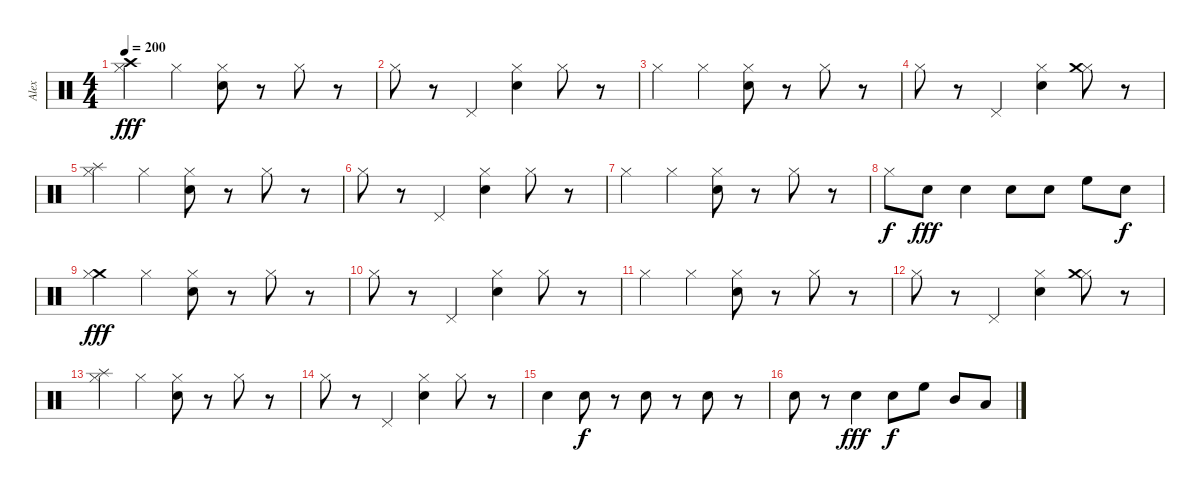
\track ("Alex" "Alex") {instrument percussion}
\staff {score}
\articulation defaults
\ts (4 4)
\tempo 200
\clef neutral
\ks c
("Crash high (hit)" "Hi-Hat (closed)").4{dy fff} "Hi-Hat (closed)".4 ("Electric Snare (hit)" "Hi-Hat (closed)").8 r.8 "Hi-Hat (closed)".8 r.8 |
"Hi-Hat (closed)".8 r.8 "Pedal Hi-Hat (hit)".4 ("Electric Snare (hit)" "Hi-Hat (closed)").4 "Hi-Hat (closed)".8 r.8 |
"Hi-Hat (closed)".4 "Hi-Hat (closed)".4 ("Electric Snare (hit)" "Hi-Hat (closed)").8 r.8 "Hi-Hat (closed)".8 r.8 |
"Hi-Hat (closed)".8 r.8 "Pedal Hi-Hat (hit)".4 ("Electric Snare (hit)" "Hi-Hat (closed)").4 ("Hi-Hat (closed)" "Crash medium (hit)").8 r.8 |
("Hi-Hat (closed)" "Splash (hit)").4 "Hi-Hat (closed)".4 ("Electric Snare (hit)" "Hi-Hat (closed)").8 r.8 "Hi-Hat (closed)".8 r.8 |
"Hi-Hat (closed)".8 r.8 "Pedal Hi-Hat (hit)".4 ("Electric Snare (hit)" "Hi-Hat (closed)").4 "Hi-Hat (closed)".8 r.8 |
"Hi-Hat (closed)".4 "Hi-Hat (closed)".4 ("Electric Snare (hit)" "Hi-Hat (closed)").8 r.8 "Hi-Hat (closed)".8 r.8 |
"Hi-Hat (closed)".8{dy f} "Electric Snare (hit)".8{dy fff} "Electric Snare (hit)".4 "Electric Snare (hit)".8 "Electric Snare (hit)".8 "High Floor Tom (hit)".8 "Snare (hit) 2".8{dy f} |
("Crash medium (hit)" "Hi-Hat (closed)").4{dy fff} "Hi-Hat (closed)".4 ("Electric Snare (hit)" "Hi-Hat (closed)").8 r.8 "Hi-Hat (closed)".8 r.8 |
"Hi-Hat (closed)".8 r.8 "Pedal Hi-Hat (hit)".4 ("Electric Snare (hit)" "Hi-Hat (closed)").4 "Hi-Hat (closed)".8 r.8 |
"Hi-Hat (closed)".4 "Hi-Hat (closed)".4 ("Electric Snare (hit)" "Hi-Hat (closed)").8 r.8 "Hi-Hat (closed)".8 r.8 |
"Hi-Hat (closed)".8 r.8 "Pedal Hi-Hat (hit)".4 ("Electric Snare (hit)" "Hi-Hat (closed)").4 ("Hi-Hat (closed)" "Crash medium (hit)").8 r.8 |
("Hi-Hat (closed)" "Splash (hit)").4 "Hi-Hat (closed)".4 ("Electric Snare (hit)" "Hi-Hat (closed)").8 r.8 "Hi-Hat (closed)".8 r.8 |
"Hi-Hat (closed)".8 r.8 "Pedal Hi-Hat (hit)".4 ("Electric Snare (hit)" "Hi-Hat (closed)").4 "Hi-Hat (closed)".8 r.8 |
"Electric Snare (hit)".4 "Electric Snare (hit)".8{dy f} r.8 "Electric Snare (hit)".8 r.8 "Electric Snare (hit)".8 r.8 |
"Electric Snare (hit)".8 r.8 "Electric Snare (hit)".4{dy fff} "Electric Snare (hit)".8{dy f} "High Floor Tom (hit)".8 "Mid Tom (hit)".8 "Low Tom (hit)".8
